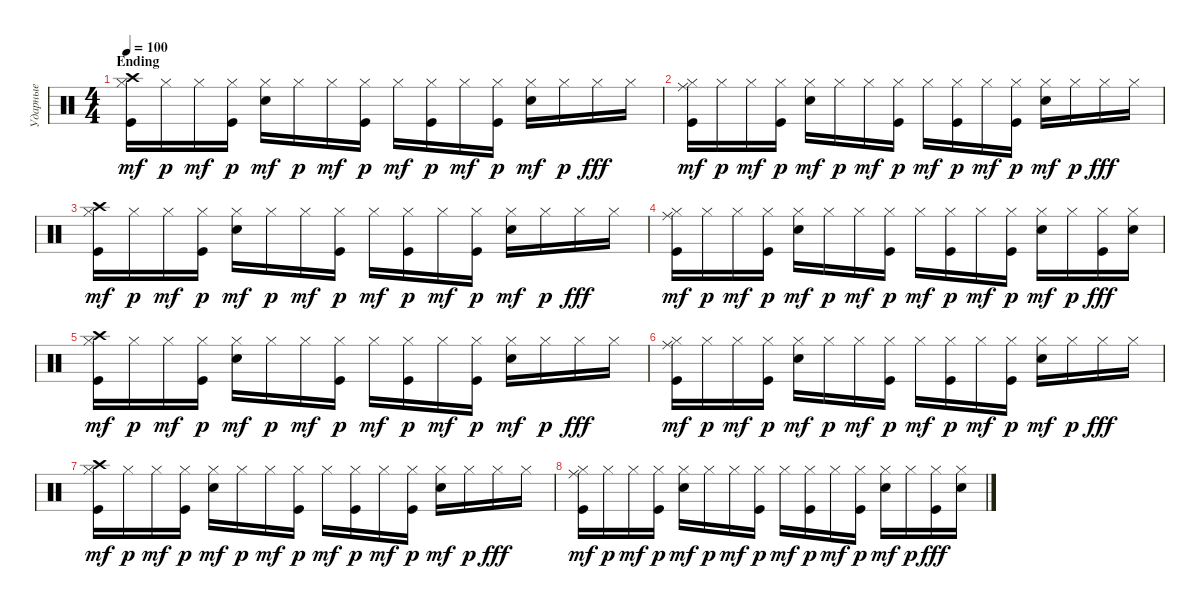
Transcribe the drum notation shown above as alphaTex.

\track ("Ударные" "Ударные") {instrument percussion}
\staff {score}
\articulation defaults
\ts (4 4)
\section ("" "Ending")
\tempo 100
\clef neutral
\ks c
("Hi-Hat (closed)" "Crash high (hit)" "Kick (hit)").16{dy mf} "Hi-Hat (closed)".16{dy p} "Hi-Hat (closed)".16{dy mf} ("Hi-Hat (closed)" "Kick (hit)").16{dy p} ("Hi-Hat (closed)" "Snare (hit) 2").16{dy mf} "Hi-Hat (closed)".16{dy p} "Hi-Hat (closed)".16{dy mf} ("Hi-Hat (closed)" "Kick (hit)").16{dy p} "Hi-Hat (closed)".16{dy mf} ("Hi-Hat (closed)" "Kick (hit)").16{dy p} "Hi-Hat (closed)".16{dy mf} ("Hi-Hat (closed)" "Kick (hit)").16{dy p} ("Hi-Hat (closed)" "Snare (hit) 2").16{dy mf} "Hi-Hat (closed)".16{dy p} "Hi-Hat (closed)".16{dy fff} "Hi-Hat (closed)".16 |
("Hi-Hat (closed)" "Ride (middle)" "Kick (hit)").16{dy mf} "Hi-Hat (closed)".16{dy p} "Hi-Hat (closed)".16{dy mf} ("Hi-Hat (closed)" "Kick (hit)").16{dy p} ("Hi-Hat (closed)" "Snare (hit) 2").16{dy mf} "Hi-Hat (closed)".16{dy p} "Hi-Hat (closed)".16{dy mf} ("Hi-Hat (closed)" "Kick (hit)").16{dy p} "Hi-Hat (closed)".16{dy mf} ("Hi-Hat (closed)" "Kick (hit)").16{dy p} "Hi-Hat (closed)".16{dy mf} ("Hi-Hat (closed)" "Kick (hit)").16{dy p} ("Hi-Hat (closed)" "Snare (hit) 2").16{dy mf} "Hi-Hat (closed)".16{dy p} "Hi-Hat (closed)".16{dy fff} "Hi-Hat (closed)".16 |
("Hi-Hat (closed)" "Crash high (hit)" "Kick (hit)").16{dy mf} "Hi-Hat (closed)".16{dy p} "Hi-Hat (closed)".16{dy mf} ("Hi-Hat (closed)" "Kick (hit)").16{dy p} ("Hi-Hat (closed)" "Snare (hit) 2").16{dy mf} "Hi-Hat (closed)".16{dy p} "Hi-Hat (closed)".16{dy mf} ("Hi-Hat (closed)" "Kick (hit)").16{dy p} "Hi-Hat (closed)".16{dy mf} ("Hi-Hat (closed)" "Kick (hit)").16{dy p} "Hi-Hat (closed)".16{dy mf} ("Hi-Hat (closed)" "Kick (hit)").16{dy p} ("Hi-Hat (closed)" "Snare (hit) 2").16{dy mf} "Hi-Hat (closed)".16{dy p} "Hi-Hat (closed)".16{dy fff} "Hi-Hat (closed)".16 |
("Hi-Hat (closed)" "Ride (middle)" "Kick (hit)").16{dy mf} "Hi-Hat (closed)".16{dy p} "Hi-Hat (closed)".16{dy mf} ("Hi-Hat (closed)" "Kick (hit)").16{dy p} ("Hi-Hat (closed)" "Snare (hit) 2").16{dy mf} "Hi-Hat (closed)".16{dy p} "Hi-Hat (closed)".16{dy mf} ("Hi-Hat (closed)" "Kick (hit)").16{dy p} "Hi-Hat (closed)".16{dy mf} ("Hi-Hat (closed)" "Kick (hit)").16{dy p} "Hi-Hat (closed)".16{dy mf} ("Hi-Hat (closed)" "Kick (hit)").16{dy p} ("Hi-Hat (closed)" "Snare (hit) 2").16{dy mf} "Hi-Hat (closed)".16{dy p} ("Hi-Hat (closed)" "Kick (hit)").16{dy fff} ("Hi-Hat (closed)" "Snare (hit) 2").16 |
("Hi-Hat (closed)" "Crash high (hit)" "Kick (hit)").16{dy mf} "Hi-Hat (closed)".16{dy p} "Hi-Hat (closed)".16{dy mf} ("Hi-Hat (closed)" "Kick (hit)").16{dy p} ("Hi-Hat (closed)" "Snare (hit) 2").16{dy mf} "Hi-Hat (closed)".16{dy p} "Hi-Hat (closed)".16{dy mf} ("Hi-Hat (closed)" "Kick (hit)").16{dy p} "Hi-Hat (closed)".16{dy mf} ("Hi-Hat (closed)" "Kick (hit)").16{dy p} "Hi-Hat (closed)".16{dy mf} ("Hi-Hat (closed)" "Kick (hit)").16{dy p} ("Hi-Hat (closed)" "Snare (hit) 2").16{dy mf} "Hi-Hat (closed)".16{dy p} "Hi-Hat (closed)".16{dy fff} "Hi-Hat (closed)".16 |
("Hi-Hat (closed)" "Ride (middle)" "Kick (hit)").16{dy mf} "Hi-Hat (closed)".16{dy p} "Hi-Hat (closed)".16{dy mf} ("Hi-Hat (closed)" "Kick (hit)").16{dy p} ("Hi-Hat (closed)" "Snare (hit) 2").16{dy mf} "Hi-Hat (closed)".16{dy p} "Hi-Hat (closed)".16{dy mf} ("Hi-Hat (closed)" "Kick (hit)").16{dy p} "Hi-Hat (closed)".16{dy mf} ("Hi-Hat (closed)" "Kick (hit)").16{dy p} "Hi-Hat (closed)".16{dy mf} ("Hi-Hat (closed)" "Kick (hit)").16{dy p} ("Hi-Hat (closed)" "Snare (hit) 2").16{dy mf} "Hi-Hat (closed)".16{dy p} "Hi-Hat (closed)".16{dy fff} "Hi-Hat (closed)".16 |
("Hi-Hat (closed)" "Crash high (hit)" "Kick (hit)").16{dy mf} "Hi-Hat (closed)".16{dy p} "Hi-Hat (closed)".16{dy mf} ("Hi-Hat (closed)" "Kick (hit)").16{dy p} ("Hi-Hat (closed)" "Snare (hit) 2").16{dy mf} "Hi-Hat (closed)".16{dy p} "Hi-Hat (closed)".16{dy mf} ("Hi-Hat (closed)" "Kick (hit)").16{dy p} "Hi-Hat (closed)".16{dy mf} ("Hi-Hat (closed)" "Kick (hit)").16{dy p} "Hi-Hat (closed)".16{dy mf} ("Hi-Hat (closed)" "Kick (hit)").16{dy p} ("Hi-Hat (closed)" "Snare (hit) 2").16{dy mf} "Hi-Hat (closed)".16{dy p} "Hi-Hat (closed)".16{dy fff} "Hi-Hat (closed)".16 |
("Hi-Hat (closed)" "Ride (middle)" "Kick (hit)").16{dy mf} "Hi-Hat (closed)".16{dy p} "Hi-Hat (closed)".16{dy mf} ("Hi-Hat (closed)" "Kick (hit)").16{dy p} ("Hi-Hat (closed)" "Snare (hit) 2").16{dy mf} "Hi-Hat (closed)".16{dy p} "Hi-Hat (closed)".16{dy mf} ("Hi-Hat (closed)" "Kick (hit)").16{dy p} "Hi-Hat (closed)".16{dy mf} ("Hi-Hat (closed)" "Kick (hit)").16{dy p} "Hi-Hat (closed)".16{dy mf} ("Hi-Hat (closed)" "Kick (hit)").16{dy p} ("Hi-Hat (closed)" "Snare (hit) 2").16{dy mf} "Hi-Hat (closed)".16{dy p} ("Hi-Hat (closed)" "Kick (hit)").16{dy fff} ("Hi-Hat (closed)" "Snare (hit) 2").16
